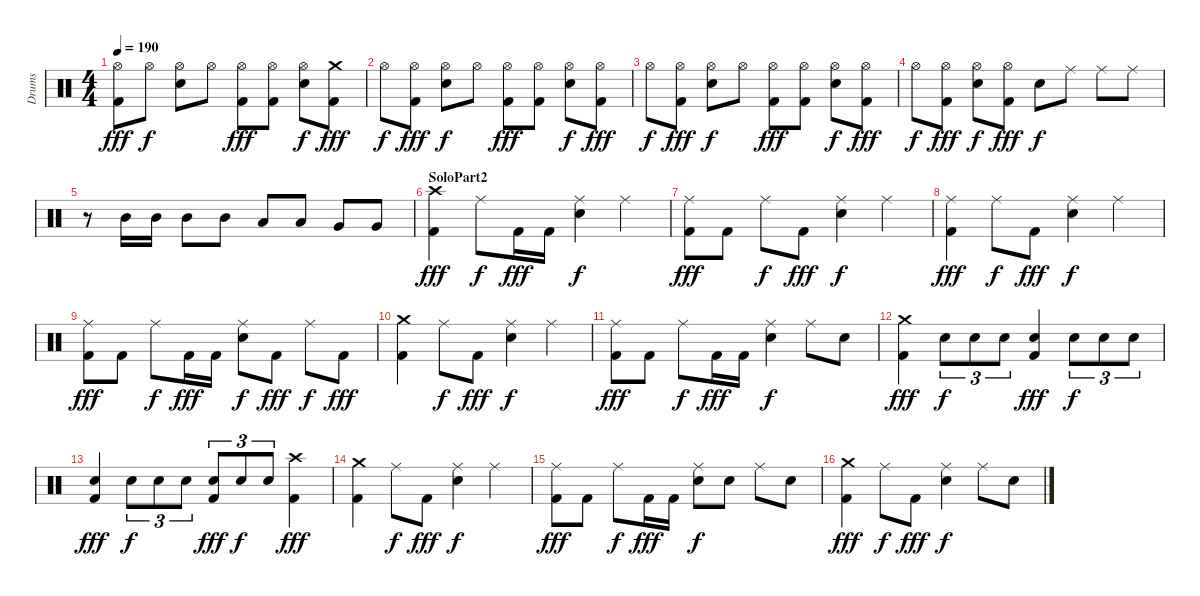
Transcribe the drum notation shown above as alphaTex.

\track ("Drums" "Drums") {instrument percussion}
\staff {score}
\articulation defaults
\ts (4 4)
\tempo 190
\clef neutral
\ks c
("Hi-Hat (open)" "Kick (hit) 2").8{dy fff} "Hi-Hat (open)".8{dy f} ("Hi-Hat (open)" "Electric Snare (hit)").8 "Hi-Hat (open)".8 ("Hi-Hat (open)" "Kick (hit) 2").8{dy fff} ("Hi-Hat (open)" "Kick (hit) 2").8 ("Hi-Hat (open)" "Electric Snare (hit)").8{dy f} ("Crash medium (hit)" "Kick (hit) 2").8{dy fff} |
"Hi-Hat (open)".8{dy f} ("Hi-Hat (open)" "Kick (hit) 2").8{dy fff} ("Hi-Hat (open)" "Electric Snare (hit)").8{dy f} "Hi-Hat (open)".8 ("Hi-Hat (open)" "Kick (hit) 2").8{dy fff} ("Hi-Hat (open)" "Kick (hit) 2").8 ("Hi-Hat (open)" "Electric Snare (hit)").8{dy f} ("Hi-Hat (open)" "Kick (hit) 2").8{dy fff} |
"Hi-Hat (open)".8{dy f} ("Hi-Hat (open)" "Kick (hit) 2").8{dy fff} ("Hi-Hat (open)" "Electric Snare (hit)").8{dy f} "Hi-Hat (open)".8 ("Hi-Hat (open)" "Kick (hit) 2").8{dy fff} ("Hi-Hat (open)" "Kick (hit) 2").8 ("Hi-Hat (open)" "Electric Snare (hit)").8{dy f} ("Hi-Hat (open)" "Kick (hit) 2").8{dy fff} |
"Hi-Hat (open)".8{dy f} ("Hi-Hat (open)" "Kick (hit) 2").8{dy fff} ("Hi-Hat (open)" "Electric Snare (hit)").8{dy f} ("Hi-Hat (open)" "Kick (hit) 2").8{dy fff} "Electric Snare (hit)".8{dy f} "Ride (middle)".8 "Ride (middle)".8 "Ride (middle)".8 |
r.8 "Mid Tom (hit)".16 "Mid Tom (hit)".16 "Mid Tom (hit)".8 "Mid Tom (hit)".8 "Low Tom (hit)".8 "Low Tom (hit)".8 "Very Low Tom (hit)".8 "Very Low Tom (hit)".8 |
\section ("" "SoloPart2")
("Crash high (hit)" "Kick (hit) 2").4{dy fff} "Ride (middle)".8{dy f} "Kick (hit) 2".16{dy fff} "Kick (hit) 2".16 ("Ride (middle)" "Electric Snare (hit)").4{dy f} "Ride (middle)".4 |
("Ride (middle)" "Kick (hit) 2").8{dy fff} "Kick (hit) 2".8 "Ride (middle)".8{dy f} "Kick (hit) 2".8{dy fff} ("Ride (middle)" "Electric Snare (hit)").4{dy f} "Ride (middle)".4 |
("Ride (middle)" "Kick (hit) 2").4{dy fff} "Ride (middle)".8{dy f} "Kick (hit) 2".8{dy fff} ("Ride (middle)" "Electric Snare (hit)").4{dy f} "Ride (middle)".4 |
("Ride (middle)" "Kick (hit) 2").8{dy fff} "Kick (hit) 2".8 "Ride (middle)".8{dy f} "Kick (hit) 2".16{dy fff} "Kick (hit) 2".16 ("Ride (middle)" "Electric Snare (hit)").8{dy f} "Kick (hit) 2".8{dy fff} "Ride (middle)".8{dy f} "Kick (hit) 2".8{dy fff} |
("Crash medium (hit)" "Kick (hit) 2").4 "Ride (middle)".8{dy f} "Kick (hit) 2".8{dy fff} ("Ride (middle)" "Electric Snare (hit)").4{dy f} "Ride (middle)".4 |
("Ride (middle)" "Kick (hit) 2").8{dy fff} "Kick (hit) 2".8 "Ride (middle)".8{dy f} "Kick (hit) 2".16{dy fff} "Kick (hit) 2".16 ("Ride (middle)" "Electric Snare (hit)").4{dy f} "Ride (middle)".8 "Electric Snare (hit)".8 |
("Crash medium (hit)" "Kick (hit) 2").4{dy fff} "Electric Snare (hit)".8{tu (3 2) dy f} "Electric Snare (hit)".8{tu (3 2)} "Electric Snare (hit)".8{tu (3 2)} ("Electric Snare (hit)" "Kick (hit) 2").4{dy fff} "Electric Snare (hit)".8{tu (3 2) dy f} "Electric Snare (hit)".8{tu (3 2)} "Electric Snare (hit)".8{tu (3 2)} |
("Electric Snare (hit)" "Kick (hit) 2").4{dy fff} "Electric Snare (hit)".8{tu (3 2) dy f} "Electric Snare (hit)".8{tu (3 2)} "Electric Snare (hit)".8{tu (3 2)} ("Electric Snare (hit)" "Kick (hit) 2").8{tu (3 2) dy fff} "Electric Snare (hit)".8{tu (3 2) dy f} "Electric Snare (hit)".8{tu (3 2)} ("Crash high (hit)" "Kick (hit) 2").4{dy fff} |
("Crash medium (hit)" "Kick (hit) 2").4 "Ride (middle)".8{dy f} "Kick (hit) 2".8{dy fff} ("Ride (middle)" "Electric Snare (hit)").4{dy f} "Ride (middle)".4 |
("Ride (middle)" "Kick (hit) 2").8{dy fff} "Kick (hit) 2".8 "Ride (middle)".8{dy f} "Kick (hit) 2".16{dy fff} "Kick (hit) 2".16 ("Ride (middle)" "Electric Snare (hit)").8{dy f} "Electric Snare (hit)".8 "Ride (middle)".8 "Electric Snare (hit)".8 |
("Crash medium (hit)" "Kick (hit) 2").4{dy fff} "Ride (middle)".8{dy f} "Kick (hit) 2".8{dy fff} ("Ride (middle)" "Electric Snare (hit)").4{dy f} "Ride (middle)".8 "Electric Snare (hit)".8
